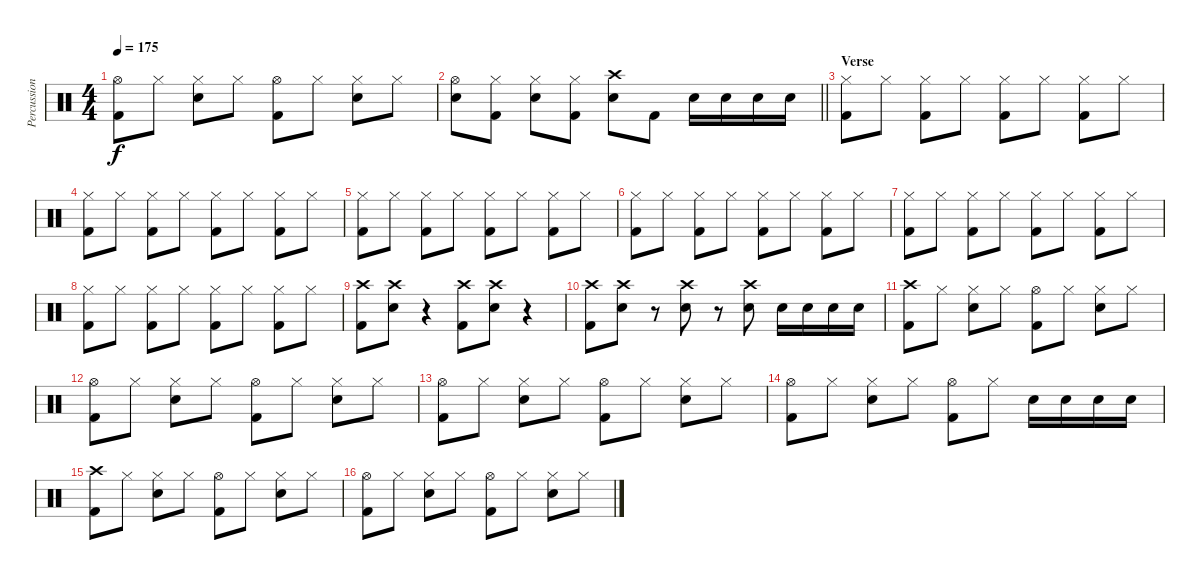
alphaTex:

\track ("Percussion" "Percussion") {instrument percussion}
\staff {score}
\articulation defaults
\ts (4 4)
\tempo 175
\clef neutral
\ks c
("Hi-Hat (open)" "Kick (hit) 2").8{dy f} "Hi-Hat (closed)".8 ("Hi-Hat (closed)" "Snare (hit) 2").8 "Hi-Hat (closed)".8 ("Hi-Hat (open)" "Kick (hit) 2").8 "Hi-Hat (closed)".8 ("Hi-Hat (closed)" "Snare (hit) 2").8 "Hi-Hat (closed)".8 |
\barLineRight lightlight
("Hi-Hat (open)" "Snare (hit) 2").8 ("Hi-Hat (closed)" "Kick (hit) 2").8 ("Hi-Hat (closed)" "Snare (hit) 2").8 ("Hi-Hat (closed)" "Kick (hit) 2").8 ("Crash high (hit)" "Snare (hit) 2").8 "Kick (hit) 2".8 "Snare (hit) 2".16 "Snare (hit) 2".16 "Snare (hit) 2".16 "Snare (hit) 2".16 |
\section ("" "Verse")
("Hi-Hat (closed)" "Kick (hit) 2").8 "Hi-Hat (closed)".8 ("Hi-Hat (closed)" "Kick (hit) 2").8 "Hi-Hat (closed)".8 ("Hi-Hat (closed)" "Kick (hit) 2").8 "Hi-Hat (closed)".8 ("Hi-Hat (closed)" "Kick (hit) 2").8 "Hi-Hat (closed)".8 |
("Hi-Hat (closed)" "Kick (hit) 2").8 "Hi-Hat (closed)".8 ("Hi-Hat (closed)" "Kick (hit) 2").8 "Hi-Hat (closed)".8 ("Hi-Hat (closed)" "Kick (hit) 2").8 "Hi-Hat (closed)".8 ("Hi-Hat (closed)" "Kick (hit) 2").8 "Hi-Hat (closed)".8 |
("Hi-Hat (closed)" "Kick (hit) 2").8 "Hi-Hat (closed)".8 ("Hi-Hat (closed)" "Kick (hit) 2").8 "Hi-Hat (closed)".8 ("Hi-Hat (closed)" "Kick (hit) 2").8 "Hi-Hat (closed)".8 ("Hi-Hat (closed)" "Kick (hit) 2").8 "Hi-Hat (closed)".8 |
("Hi-Hat (closed)" "Kick (hit) 2").8 "Hi-Hat (closed)".8 ("Hi-Hat (closed)" "Kick (hit) 2").8 "Hi-Hat (closed)".8 ("Hi-Hat (closed)" "Kick (hit) 2").8 "Hi-Hat (closed)".8 ("Hi-Hat (closed)" "Kick (hit) 2").8 "Hi-Hat (closed)".8 |
("Hi-Hat (closed)" "Kick (hit) 2").8 "Hi-Hat (closed)".8 ("Hi-Hat (closed)" "Kick (hit) 2").8 "Hi-Hat (closed)".8 ("Hi-Hat (closed)" "Kick (hit) 2").8 "Hi-Hat (closed)".8 ("Hi-Hat (closed)" "Kick (hit) 2").8 "Hi-Hat (closed)".8 |
("Hi-Hat (closed)" "Kick (hit) 2").8 "Hi-Hat (closed)".8 ("Hi-Hat (closed)" "Kick (hit) 2").8 "Hi-Hat (closed)".8 ("Hi-Hat (closed)" "Kick (hit) 2").8 "Hi-Hat (closed)".8 ("Hi-Hat (closed)" "Kick (hit) 2").8 "Hi-Hat (closed)".8 |
("Crash high (hit)" "Kick (hit) 2").8 ("Crash high (hit)" "Snare (hit) 2").8 r.4 ("Crash high (hit)" "Kick (hit) 2").8 ("Crash high (hit)" "Snare (hit) 2").8 r.4 |
("Crash high (hit)" "Kick (hit) 2").8 ("Crash high (hit)" "Snare (hit) 2").8 r.8 ("Crash high (hit)" "Snare (hit) 2").8 r.8 ("Crash high (hit)" "Snare (hit) 2").8 "Snare (hit) 2".16 "Snare (hit) 2".16 "Snare (hit) 2".16 "Snare (hit) 2".16 |
("Crash high (hit)" "Kick (hit) 2").8 "Hi-Hat (closed)".8 ("Hi-Hat (closed)" "Snare (hit) 2").8 "Hi-Hat (closed)".8 ("Hi-Hat (open)" "Kick (hit) 2").8 "Hi-Hat (closed)".8 ("Hi-Hat (closed)" "Snare (hit) 2").8 "Hi-Hat (closed)".8 |
("Hi-Hat (open)" "Kick (hit) 2").8 "Hi-Hat (closed)".8 ("Hi-Hat (closed)" "Snare (hit) 2").8 "Hi-Hat (closed)".8 ("Hi-Hat (open)" "Kick (hit) 2").8 "Hi-Hat (closed)".8 ("Hi-Hat (closed)" "Snare (hit) 2").8 "Hi-Hat (closed)".8 |
("Hi-Hat (open)" "Kick (hit) 2").8 "Hi-Hat (closed)".8 ("Hi-Hat (closed)" "Snare (hit) 2").8 "Hi-Hat (closed)".8 ("Hi-Hat (open)" "Kick (hit) 2").8 "Hi-Hat (closed)".8 ("Hi-Hat (closed)" "Snare (hit) 2").8 "Hi-Hat (closed)".8 |
("Hi-Hat (open)" "Kick (hit) 2").8 "Hi-Hat (closed)".8 ("Hi-Hat (closed)" "Snare (hit) 2").8 "Hi-Hat (closed)".8 ("Hi-Hat (open)" "Kick (hit) 2").8 "Hi-Hat (closed)".8 "Snare (hit) 2".16 "Snare (hit) 2".16 "Snare (hit) 2".16 "Snare (hit) 2".16 |
("Crash high (hit)" "Kick (hit) 2").8 "Hi-Hat (closed)".8 ("Hi-Hat (closed)" "Snare (hit) 2").8 "Hi-Hat (closed)".8 ("Hi-Hat (open)" "Kick (hit) 2").8 "Hi-Hat (closed)".8 ("Hi-Hat (closed)" "Snare (hit) 2").8 "Hi-Hat (closed)".8 |
("Hi-Hat (open)" "Kick (hit) 2").8 "Hi-Hat (closed)".8 ("Hi-Hat (closed)" "Snare (hit) 2").8 "Hi-Hat (closed)".8 ("Hi-Hat (open)" "Kick (hit) 2").8 "Hi-Hat (closed)".8 ("Hi-Hat (closed)" "Snare (hit) 2").8 "Hi-Hat (closed)".8
